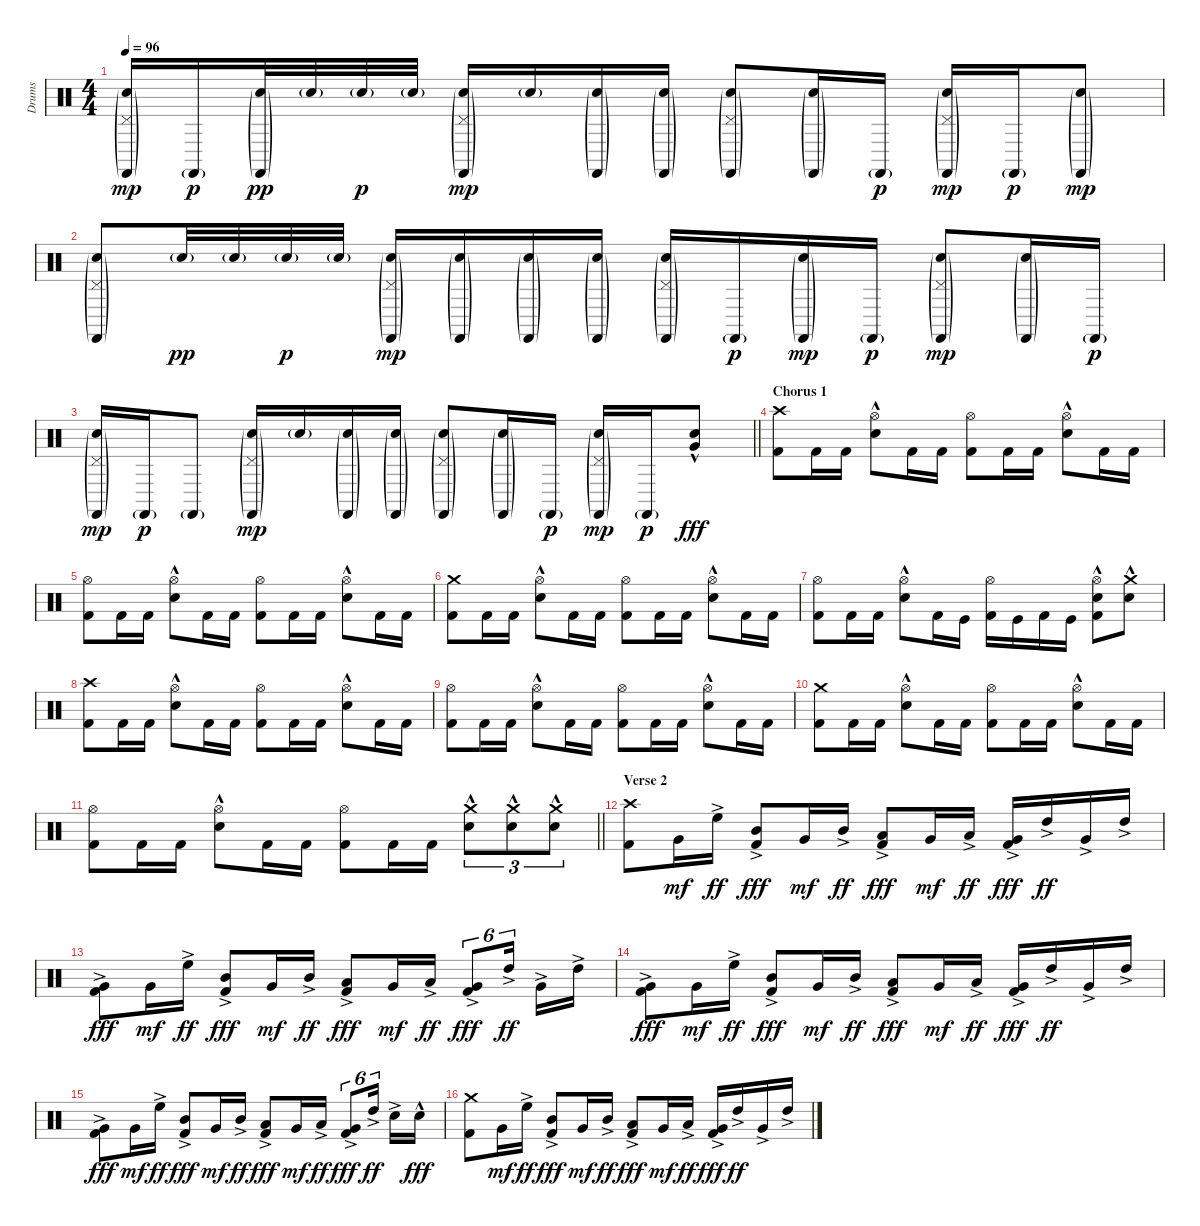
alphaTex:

\track ("Drums" "Drums") {instrument percussion}
\staff {score}
\articulation defaults
\ts (4 4)
\tempo 96
\clef neutral
\ks c
("Pedal Hi-Hat (hit)"{g} "Castanets (hit)"{g} "Snare (hit) 2"{g}).16{dy mp} "Castanets (hit)"{g}.16{dy p} ("Castanets (hit)"{g} "Snare (hit) 2"{g}).32{dy pp} "Snare (hit) 2"{g}.32 "Snare (hit) 2"{g}.32{dy p} "Snare (hit) 2"{g}.32 ("Pedal Hi-Hat (hit)"{g} "Castanets (hit)"{g} "Snare (hit) 2"{g}).16{dy mp} "Snare (hit) 2"{g}.16 ("Castanets (hit)"{g} "Snare (hit) 2"{g}).16 ("Castanets (hit)"{g} "Snare (hit) 2"{g}).16 ("Pedal Hi-Hat (hit)"{g} "Castanets (hit)"{g} "Snare (hit) 2"{g}).8 ("Castanets (hit)"{g} "Snare (hit) 2"{g}).16 "Castanets (hit)"{g}.16{dy p} ("Pedal Hi-Hat (hit)"{g} "Castanets (hit)"{g} "Snare (hit) 2"{g}).16{dy mp} "Castanets (hit)"{g}.16{dy p} ("Castanets (hit)"{g} "Snare (hit) 2"{g}).8{dy mp} |
("Pedal Hi-Hat (hit)"{g} "Castanets (hit)"{g} "Snare (hit) 2"{g}).8 "Snare (hit) 2"{g}.32{dy pp} "Snare (hit) 2"{g}.32 "Snare (hit) 2"{g}.32{dy p} "Snare (hit) 2"{g}.32 ("Pedal Hi-Hat (hit)"{g} "Castanets (hit)"{g} "Snare (hit) 2"{g}).16{dy mp} ("Castanets (hit)"{g} "Snare (hit) 2"{g}).16 ("Castanets (hit)"{g} "Snare (hit) 2"{g}).16 ("Castanets (hit)"{g} "Snare (hit) 2"{g}).16 ("Pedal Hi-Hat (hit)"{g} "Castanets (hit)"{g} "Snare (hit) 2"{g}).16 "Castanets (hit)"{g}.16{dy p} ("Castanets (hit)"{g} "Snare (hit) 2"{g}).16{dy mp} "Castanets (hit)"{g}.16{dy p} ("Pedal Hi-Hat (hit)"{g} "Castanets (hit)"{g} "Snare (hit) 2"{g}).8{dy mp} ("Castanets (hit)"{g} "Snare (hit) 2"{g}).16 "Castanets (hit)"{g}.16{dy p} |
\barLineRight lightlight
("Pedal Hi-Hat (hit)"{g} "Castanets (hit)"{g} "Snare (hit) 2"{g}).16{dy mp} "Castanets (hit)"{g}.16{dy p} "Castanets (hit)"{g}.8 ("Pedal Hi-Hat (hit)"{g} "Castanets (hit)"{g} "Snare (hit) 2"{g}).16{dy mp} "Snare (hit) 2"{g}.16 ("Castanets (hit)"{g} "Snare (hit) 2"{g}).16 ("Castanets (hit)"{g} "Snare (hit) 2"{g}).16 ("Pedal Hi-Hat (hit)"{g} "Castanets (hit)"{g} "Snare (hit) 2"{g}).8 ("Castanets (hit)"{g} "Snare (hit) 2"{g}).16 "Castanets (hit)"{g}.16{dy p} ("Pedal Hi-Hat (hit)"{g} "Castanets (hit)"{g} "Snare (hit) 2"{g}).16{dy mp} "Castanets (hit)"{g}.16{dy p} ("Electric Snare (hit)"{hac} "Very Low Tom (hit)"{hac}).8{dy fff volume 10} |
\section ("" "Chorus 1")
("Crash high (hit)" "Kick (hit) 2").8 "Kick (hit) 2".16 "Kick (hit) 2".16 ("Hi-Hat (open)" "Electric Snare (hit)"{hac}).8 "Kick (hit) 2".16 "Kick (hit) 2".16 ("Hi-Hat (open)" "Kick (hit) 2").8 "Kick (hit) 2".16 "Kick (hit) 2".16 ("Hi-Hat (open)" "Electric Snare (hit)"{hac}).8 "Kick (hit) 2".16 "Kick (hit) 2".16 |
("Hi-Hat (open)" "Kick (hit) 2").8 "Kick (hit) 2".16 "Kick (hit) 2".16 ("Hi-Hat (open)" "Electric Snare (hit)"{hac}).8 "Kick (hit) 2".16 "Kick (hit) 2".16 ("Hi-Hat (open)" "Kick (hit) 2").8 "Kick (hit) 2".16 "Kick (hit) 2".16 ("Hi-Hat (open)" "Electric Snare (hit)"{hac}).8 "Kick (hit) 2".16 "Kick (hit) 2".16 |
("Crash medium (hit)" "Kick (hit) 2").8 "Kick (hit) 2".16 "Kick (hit) 2".16 ("Hi-Hat (open)" "Electric Snare (hit)"{hac}).8 "Kick (hit) 2".16 "Kick (hit) 2".16 ("Hi-Hat (open)" "Kick (hit) 2").8 "Kick (hit) 2".16 "Kick (hit) 2".16 ("Hi-Hat (open)" "Electric Snare (hit)"{hac}).8 "Kick (hit) 2".16 "Kick (hit) 2".16 |
("Hi-Hat (open)" "Kick (hit) 2").8 "Kick (hit) 2".16 "Kick (hit) 2".16 ("Hi-Hat (open)" "Electric Snare (hit)"{hac}).8 "Kick (hit) 2".16 "Kick (hit)".16 ("Hi-Hat (open)" "Kick (hit) 2").16 "Kick (hit)".16 "Kick (hit) 2".16 "Kick (hit)".16 ("Hi-Hat (open)" "Electric Snare (hit)"{hac} "Kick (hit) 2").8 ("Crash medium (hit)" "Electric Snare (hit)"{hac}).8 |
("Crash high (hit)" "Kick (hit) 2").8 "Kick (hit) 2".16 "Kick (hit) 2".16 ("Hi-Hat (open)" "Electric Snare (hit)"{hac}).8 "Kick (hit) 2".16 "Kick (hit) 2".16 ("Hi-Hat (open)" "Kick (hit) 2").8 "Kick (hit) 2".16 "Kick (hit) 2".16 ("Hi-Hat (open)" "Electric Snare (hit)"{hac}).8 "Kick (hit) 2".16 "Kick (hit) 2".16 |
("Hi-Hat (open)" "Kick (hit) 2").8 "Kick (hit) 2".16 "Kick (hit) 2".16 ("Hi-Hat (open)" "Electric Snare (hit)"{hac}).8 "Kick (hit) 2".16 "Kick (hit) 2".16 ("Hi-Hat (open)" "Kick (hit) 2").8 "Kick (hit) 2".16 "Kick (hit) 2".16 ("Hi-Hat (open)" "Electric Snare (hit)"{hac}).8 "Kick (hit) 2".16 "Kick (hit) 2".16 |
("Crash medium (hit)" "Kick (hit) 2").8 "Kick (hit) 2".16 "Kick (hit) 2".16 ("Hi-Hat (open)" "Electric Snare (hit)"{hac}).8 "Kick (hit) 2".16 "Kick (hit) 2".16 ("Hi-Hat (open)" "Kick (hit) 2").8 "Kick (hit) 2".16 "Kick (hit) 2".16 ("Hi-Hat (open)" "Electric Snare (hit)"{hac}).8 "Kick (hit) 2".16 "Kick (hit) 2".16 |
\barLineRight lightlight
("Hi-Hat (open)" "Kick (hit) 2").8 "Kick (hit) 2".16 "Kick (hit) 2".16 ("Hi-Hat (open)" "Electric Snare (hit)"{hac}).8 "Kick (hit) 2".16 "Kick (hit) 2".16 ("Hi-Hat (open)" "Kick (hit) 2").8 "Kick (hit) 2".16 "Kick (hit) 2".16 ("Crash medium (hit)" "Electric Snare (hit)"{hac}).8{tu (3 2)} ("Crash medium (hit)" "Electric Snare (hit)"{hac}).8{tu (3 2)} ("Crash medium (hit)" "Electric Snare (hit)"{hac}).8{tu (3 2)} |
\section ("" "Verse 2")
("Crash high (hit)" "Kick (hit) 2").8 "Very Low Tom (hit)".16{dy mf} "High Floor Tom (hit)"{ac}.16{dy ff} ("Mid Tom (hit)"{ac} "Kick (hit) 2").8{dy fff} "Very Low Tom (hit)".16{dy mf} "Mid Tom (hit)"{ac}.16{dy ff} ("Low Tom (hit)"{ac} "Kick (hit) 2").8{dy fff} "Very Low Tom (hit)".16{dy mf} "Low Tom (hit)"{ac}.16{dy ff} ("Very Low Tom (hit)"{ac} "Kick (hit) 2").16{dy fff} "High Tom (hit)"{ac}.16{dy ff} "Very Low Tom (hit)"{ac}.16 "High Tom (hit)"{ac}.16 |
("Very Low Tom (hit)"{ac} "Kick (hit) 2").8{dy fff} "Very Low Tom (hit)".16{dy mf} "High Floor Tom (hit)"{ac}.16{dy ff} ("Mid Tom (hit)"{ac} "Kick (hit) 2").8{dy fff} "Very Low Tom (hit)".16{dy mf} "Mid Tom (hit)"{ac}.16{dy ff} ("Low Tom (hit)"{ac} "Kick (hit) 2").8{dy fff} "Very Low Tom (hit)".16{dy mf} "Low Tom (hit)"{ac}.16{dy ff} ("Very Low Tom (hit)"{ac} "Kick (hit) 2").8{tu (6 4) dy fff} "High Tom (hit)"{ac}.16{tu (6 4) dy ff beam splitsecondary} "Very Low Tom (hit)"{ac}.16 "High Tom (hit)"{ac}.16 |
("Very Low Tom (hit)"{ac} "Kick (hit) 2").8{dy fff} "Very Low Tom (hit)".16{dy mf} "High Floor Tom (hit)"{ac}.16{dy ff} ("Mid Tom (hit)"{ac} "Kick (hit) 2").8{dy fff} "Very Low Tom (hit)".16{dy mf} "Mid Tom (hit)"{ac}.16{dy ff} ("Low Tom (hit)"{ac} "Kick (hit) 2").8{dy fff} "Very Low Tom (hit)".16{dy mf} "Low Tom (hit)"{ac}.16{dy ff} ("Very Low Tom (hit)"{ac} "Kick (hit) 2").16{dy fff} "High Tom (hit)"{ac}.16{dy ff} "Very Low Tom (hit)"{ac}.16 "High Tom (hit)"{ac}.16 |
("Very Low Tom (hit)"{ac} "Kick (hit) 2").8{dy fff} "Very Low Tom (hit)".16{dy mf} "High Floor Tom (hit)"{ac}.16{dy ff} ("Mid Tom (hit)"{ac} "Kick (hit) 2").8{dy fff} "Very Low Tom (hit)".16{dy mf} "Mid Tom (hit)"{ac}.16{dy ff} ("Low Tom (hit)"{ac} "Kick (hit) 2").8{dy fff} "Very Low Tom (hit)".16{dy mf} "Low Tom (hit)"{ac}.16{dy ff} ("Very Low Tom (hit)"{ac} "Kick (hit) 2").8{tu (6 4) dy fff} "High Tom (hit)"{ac}.16{tu (6 4) dy ff beam splitsecondary} "Electric Snare (hit)"{ac}.16 "Electric Snare (hit)"{hac}.16{dy fff} |
("Crash medium (hit)" "Kick (hit) 2").8 "Very Low Tom (hit)".16{dy mf} "High Floor Tom (hit)"{ac}.16{dy ff} ("Mid Tom (hit)"{ac} "Kick (hit) 2").8{dy fff} "Very Low Tom (hit)".16{dy mf} "Mid Tom (hit)"{ac}.16{dy ff} ("Low Tom (hit)"{ac} "Kick (hit) 2").8{dy fff} "Very Low Tom (hit)".16{dy mf} "Low Tom (hit)"{ac}.16{dy ff} ("Very Low Tom (hit)"{ac} "Kick (hit) 2").16{dy fff} "High Tom (hit)"{ac}.16{dy ff} "Very Low Tom (hit)"{ac}.16 "High Tom (hit)"{ac}.16
